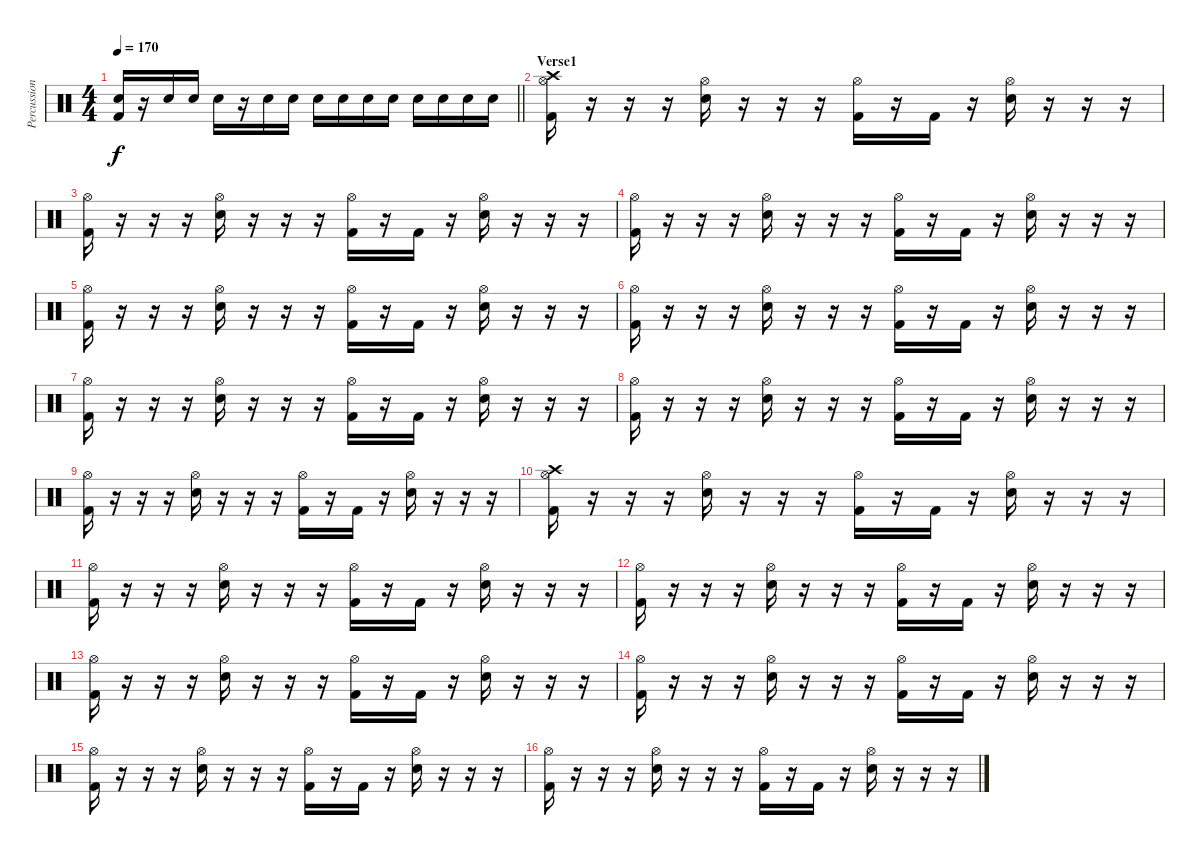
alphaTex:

\track ("Percussion" "Percussion") {instrument percussion}
\staff {score}
\articulation defaults
\ts (4 4)
\tempo 170
\clef neutral
\barLineRight lightlight
\ks c
("Electric Snare (hit)" "Kick (hit) 2").16{dy f} r.16 "Electric Snare (hit)".16 "Electric Snare (hit)".16 "Electric Snare (hit)".16 r.16 "Electric Snare (hit)".16 "Electric Snare (hit)".16 "Electric Snare (hit)".16 "Electric Snare (hit)".16 "Electric Snare (hit)".16 "Electric Snare (hit)".16 "Electric Snare (hit)".16 "Electric Snare (hit)".16 "Electric Snare (hit)".16 "Electric Snare (hit)".16 |
\section ("" "Verse1")
("Hi-Hat (open)" "Crash high (hit)" "Kick (hit) 2").16 r.16 r.16 r.16 ("Hi-Hat (open)" "Electric Snare (hit)").16 r.16 r.16 r.16 ("Hi-Hat (open)" "Kick (hit) 2").16 r.16 "Kick (hit) 2".16 r.16 ("Hi-Hat (open)" "Electric Snare (hit)").16 r.16 r.16 r.16 |
("Hi-Hat (open)" "Kick (hit) 2").16 r.16 r.16 r.16 ("Hi-Hat (open)" "Electric Snare (hit)").16 r.16 r.16 r.16 ("Hi-Hat (open)" "Kick (hit) 2").16 r.16 "Kick (hit) 2".16 r.16 ("Hi-Hat (open)" "Electric Snare (hit)").16 r.16 r.16 r.16 |
("Hi-Hat (open)" "Kick (hit) 2").16 r.16 r.16 r.16 ("Hi-Hat (open)" "Electric Snare (hit)").16 r.16 r.16 r.16 ("Hi-Hat (open)" "Kick (hit) 2").16 r.16 "Kick (hit) 2".16 r.16 ("Hi-Hat (open)" "Electric Snare (hit)").16 r.16 r.16 r.16 |
("Hi-Hat (open)" "Kick (hit) 2").16 r.16 r.16 r.16 ("Hi-Hat (open)" "Electric Snare (hit)").16 r.16 r.16 r.16 ("Hi-Hat (open)" "Kick (hit) 2").16 r.16 "Kick (hit) 2".16 r.16 ("Hi-Hat (open)" "Electric Snare (hit)").16 r.16 r.16 r.16 |
("Hi-Hat (open)" "Kick (hit) 2").16 r.16 r.16 r.16 ("Hi-Hat (open)" "Electric Snare (hit)").16 r.16 r.16 r.16 ("Hi-Hat (open)" "Kick (hit) 2").16 r.16 "Kick (hit) 2".16 r.16 ("Hi-Hat (open)" "Electric Snare (hit)").16 r.16 r.16 r.16 |
("Hi-Hat (open)" "Kick (hit) 2").16 r.16 r.16 r.16 ("Hi-Hat (open)" "Electric Snare (hit)").16 r.16 r.16 r.16 ("Hi-Hat (open)" "Kick (hit) 2").16 r.16 "Kick (hit) 2".16 r.16 ("Hi-Hat (open)" "Electric Snare (hit)").16 r.16 r.16 r.16 |
("Hi-Hat (open)" "Kick (hit) 2").16 r.16 r.16 r.16 ("Hi-Hat (open)" "Electric Snare (hit)").16 r.16 r.16 r.16 ("Hi-Hat (open)" "Kick (hit) 2").16 r.16 "Kick (hit) 2".16 r.16 ("Hi-Hat (open)" "Electric Snare (hit)").16 r.16 r.16 r.16 |
("Hi-Hat (open)" "Kick (hit) 2").16 r.16 r.16 r.16 ("Hi-Hat (open)" "Electric Snare (hit)").16 r.16 r.16 r.16 ("Hi-Hat (open)" "Kick (hit) 2").16 r.16 "Kick (hit) 2".16 r.16 ("Hi-Hat (open)" "Electric Snare (hit)").16 r.16 r.16 r.16 |
("Hi-Hat (open)" "Crash high (hit)" "Kick (hit) 2").16 r.16 r.16 r.16 ("Hi-Hat (open)" "Electric Snare (hit)").16 r.16 r.16 r.16 ("Hi-Hat (open)" "Kick (hit) 2").16 r.16 "Kick (hit) 2".16 r.16 ("Hi-Hat (open)" "Electric Snare (hit)").16 r.16 r.16 r.16 |
("Hi-Hat (open)" "Kick (hit) 2").16 r.16 r.16 r.16 ("Hi-Hat (open)" "Electric Snare (hit)").16 r.16 r.16 r.16 ("Hi-Hat (open)" "Kick (hit) 2").16 r.16 "Kick (hit) 2".16 r.16 ("Hi-Hat (open)" "Electric Snare (hit)").16 r.16 r.16 r.16 |
("Hi-Hat (open)" "Kick (hit) 2").16 r.16 r.16 r.16 ("Hi-Hat (open)" "Electric Snare (hit)").16 r.16 r.16 r.16 ("Hi-Hat (open)" "Kick (hit) 2").16 r.16 "Kick (hit) 2".16 r.16 ("Hi-Hat (open)" "Electric Snare (hit)").16 r.16 r.16 r.16 |
("Hi-Hat (open)" "Kick (hit) 2").16 r.16 r.16 r.16 ("Hi-Hat (open)" "Electric Snare (hit)").16 r.16 r.16 r.16 ("Hi-Hat (open)" "Kick (hit) 2").16 r.16 "Kick (hit) 2".16 r.16 ("Hi-Hat (open)" "Electric Snare (hit)").16 r.16 r.16 r.16 |
("Hi-Hat (open)" "Kick (hit) 2").16 r.16 r.16 r.16 ("Hi-Hat (open)" "Electric Snare (hit)").16 r.16 r.16 r.16 ("Hi-Hat (open)" "Kick (hit) 2").16 r.16 "Kick (hit) 2".16 r.16 ("Hi-Hat (open)" "Electric Snare (hit)").16 r.16 r.16 r.16 |
("Hi-Hat (open)" "Kick (hit) 2").16 r.16 r.16 r.16 ("Hi-Hat (open)" "Electric Snare (hit)").16 r.16 r.16 r.16 ("Hi-Hat (open)" "Kick (hit) 2").16 r.16 "Kick (hit) 2".16 r.16 ("Hi-Hat (open)" "Electric Snare (hit)").16 r.16 r.16 r.16 |
("Hi-Hat (open)" "Kick (hit) 2").16 r.16 r.16 r.16 ("Hi-Hat (open)" "Electric Snare (hit)").16 r.16 r.16 r.16 ("Hi-Hat (open)" "Kick (hit) 2").16 r.16 "Kick (hit) 2".16 r.16 ("Hi-Hat (open)" "Electric Snare (hit)").16 r.16 r.16 r.16
